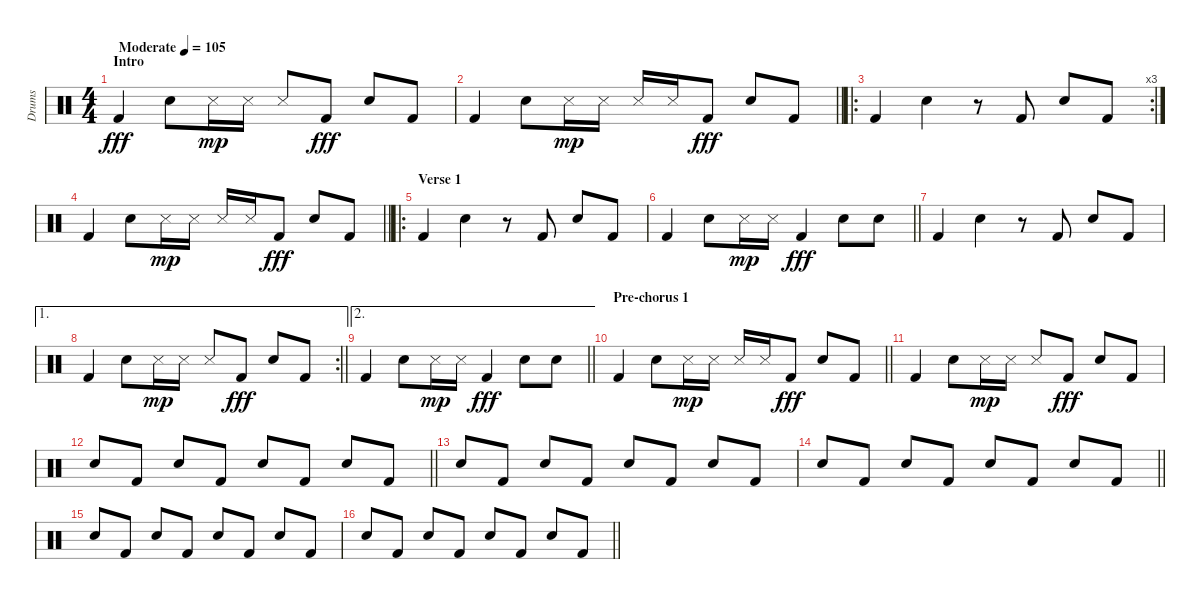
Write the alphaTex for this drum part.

\track ("Drums" "Drums") {instrument percussion}
\staff {score}
\articulation defaults
\ts (4 4)
\section ("" "Intro")
\tempo (105 "Moderate")
\clef neutral
\ks aminor "Kick (hit) 2".4{dy fff} "Electric Snare (hit)".8 "Snare (side stick) 3".16{dy mp} "Metronome (hit)".16 "Snare (side stick) 3".8 "Kick (hit) 2".8{dy fff} "Electric Snare (hit)".8 "Kick (hit) 2".8
|
\barLineRight lightlight "Kick (hit) 2".4 "Electric Snare (hit)".8 "Snare (side stick) 3".16{dy mp} "Metronome (hit)".16 "Snare (side stick) 3".16 "Metronome (hit)".16 "Kick (hit) 2".8{dy fff} "Electric Snare (hit)".8 "Kick (hit) 2".8
|
\ro
\rc 3 "Kick (hit) 2".4 "Electric Snare (hit)".4
r.8 "Kick (hit) 2".8 "Electric Snare (hit)".8 "Kick (hit) 2".8 |
\barLineRight lightlight "Kick (hit) 2".4 "Electric Snare (hit)".8 "Snare (side stick) 3".16{dy mp} "Metronome (hit)".16 "Snare (side stick) 3".16 "Metronome (hit)".16 "Kick (hit) 2".8{dy fff} "Electric Snare (hit)".8 "Kick (hit) 2".8
|
\ro
\section ("" "Verse 1")
"Kick (hit) 2".4 "Electric Snare (hit)".4 r.8 "Kick (hit) 2".8 "Electric Snare (hit)".8 "Kick (hit) 2".8 |
\barLineRight lightlight "Kick (hit) 2".4 "Electric Snare (hit)".8 "Snare (side stick) 3".16{dy mp} "Metronome (hit)".16 "Kick (hit) 2".4{dy fff} "Electric Snare (hit)".8 "Electric Snare (hit)".8
|
"Kick (hit) 2".4 "Electric Snare (hit)".4 r.8 "Kick (hit) 2".8 "Electric Snare (hit)".8 "Kick (hit) 2".8 |
\ae 1
\rc 2
\barLineRight lightlight "Kick (hit) 2".4 "Electric Snare (hit)".8 "Snare (side stick) 3".16{dy mp} "Metronome (hit)".16 "Snare (side stick) 3".8 "Kick (hit) 2".8{dy fff} "Electric Snare (hit)".8 "Kick (hit) 2".8
|
\ae 2
\barLineRight lightlight "Kick (hit) 2".4 "Electric Snare (hit)".8 "Snare (side stick) 3".16{dy mp} "Metronome (hit)".16 "Kick (hit) 2".4{dy fff} "Electric Snare (hit)".8 "Electric Snare (hit)".8
|
\section ("" "Pre-chorus 1")
\barLineRight lightlight "Kick (hit) 2".4 "Electric Snare (hit)".8 "Snare (side stick) 3".16{dy mp} "Metronome (hit)".16 "Snare (side stick) 3".16 "Metronome (hit)".16 "Kick (hit) 2".8{dy fff} "Electric Snare (hit)".8 "Kick (hit) 2".8
|
"Kick (hit) 2".4 "Electric Snare (hit)".8 "Snare (side stick) 3".16{dy mp} "Metronome (hit)".16 "Snare (side stick) 3".8 "Kick (hit) 2".8{dy fff} "Electric Snare (hit)".8 "Kick (hit) 2".8 |
\barLineRight lightlight "Electric Snare (hit)".8 "Kick (hit) 2".8 "Electric Snare (hit)".8 "Kick (hit) 2".8 "Electric Snare (hit)".8 "Kick (hit) 2".8 "Electric Snare (hit)".8 "Kick (hit) 2".8
|
"Electric Snare (hit)".8 "Kick (hit) 2".8 "Electric Snare (hit)".8 "Kick (hit) 2".8 "Electric Snare (hit)".8 "Kick (hit) 2".8 "Electric Snare (hit)".8 "Kick (hit) 2".8 |
\barLineRight lightlight "Electric Snare (hit)".8 "Kick (hit) 2".8 "Electric Snare (hit)".8 "Kick (hit) 2".8 "Electric Snare (hit)".8 "Kick (hit) 2".8 "Electric Snare (hit)".8 "Kick (hit) 2".8
|
"Electric Snare (hit)".8 "Kick (hit) 2".8 "Electric Snare (hit)".8 "Kick (hit) 2".8 "Electric Snare (hit)".8 "Kick (hit) 2".8 "Electric Snare (hit)".8 "Kick (hit) 2".8 |
\barLineRight lightlight "Electric Snare (hit)".8 "Kick (hit) 2".8 "Electric Snare (hit)".8 "Kick (hit) 2".8 "Electric Snare (hit)".8 "Kick (hit) 2".8 "Electric Snare (hit)".8 "Kick (hit) 2".8
